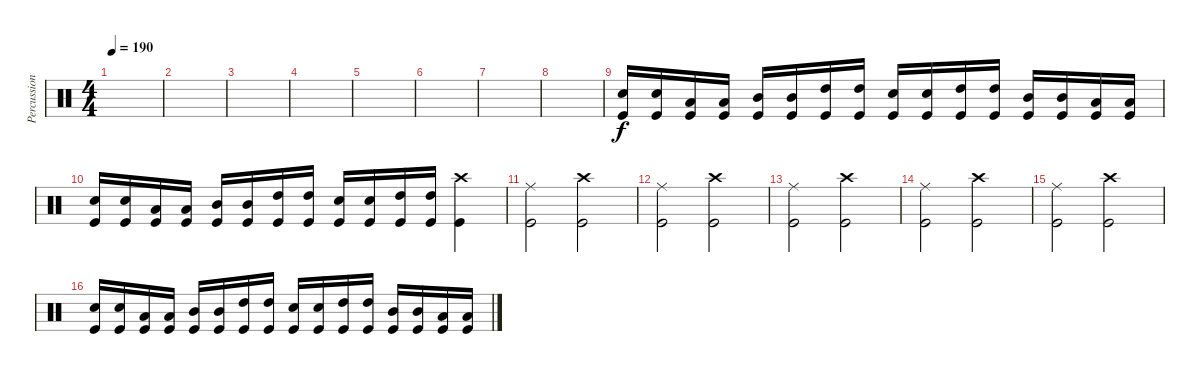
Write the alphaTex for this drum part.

\track ("Percussioni" "Percussion") {instrument percussion}
\staff {score}
\articulation defaults
\ts (4 4)
\tempo 190
\clef neutral
\ks c
|
|
|
|
|
|
|
|
("Electric Snare (hit)" "Kick (hit)").16 ("Electric Snare (hit)" "Kick (hit)").16 ("Low Tom (hit)" "Kick (hit)").16 ("Low Tom (hit)" "Kick (hit)").16 ("Mid Tom (hit)" "Kick (hit)").16 ("Mid Tom (hit)" "Kick (hit)").16 ("High Tom (hit)" "Kick (hit)").16 ("High Tom (hit)" "Kick (hit)").16 ("Electric Snare (hit)" "Kick (hit)").16 ("Electric Snare (hit)" "Kick (hit)").16 ("High Tom (hit)" "Kick (hit)").16 ("High Tom (hit)" "Kick (hit)").16 ("Mid Tom (hit)" "Kick (hit)").16 ("Mid Tom (hit)" "Kick (hit)").16 ("Low Tom (hit)" "Kick (hit)").16 ("Low Tom (hit)" "Kick (hit)").16 |
("Electric Snare (hit)" "Kick (hit)").16 ("Electric Snare (hit)" "Kick (hit)").16 ("Low Tom (hit)" "Kick (hit)").16 ("Low Tom (hit)" "Kick (hit)").16 ("Mid Tom (hit)" "Kick (hit)").16 ("Mid Tom (hit)" "Kick (hit)").16 ("High Tom (hit)" "Kick (hit)").16 ("High Tom (hit)" "Kick (hit)").16 ("Electric Snare (hit)" "Kick (hit)").16 ("Electric Snare (hit)" "Kick (hit)").16 ("High Tom (hit)" "Kick (hit)").16 ("High Tom (hit)" "Kick (hit)").16 ("Crash high (hit)" "Kick (hit)").4 |
("Ride (middle)" "Kick (hit)").2 ("Crash high (hit)" "Kick (hit)").2 |
("Ride (middle)" "Kick (hit)").2 ("Crash high (hit)" "Kick (hit)").2 |
("Ride (middle)" "Kick (hit)").2 ("Crash high (hit)" "Kick (hit)").2 |
("Ride (middle)" "Kick (hit)").2 ("Crash high (hit)" "Kick (hit)").2 |
("Ride (middle)" "Kick (hit)").2 ("Crash high (hit)" "Kick (hit)").2 |
("Electric Snare (hit)" "Kick (hit)").16 ("Electric Snare (hit)" "Kick (hit)").16 ("Low Tom (hit)" "Kick (hit)").16 ("Low Tom (hit)" "Kick (hit)").16 ("Mid Tom (hit)" "Kick (hit)").16 ("Mid Tom (hit)" "Kick (hit)").16 ("High Tom (hit)" "Kick (hit)").16 ("High Tom (hit)" "Kick (hit)").16 ("Electric Snare (hit)" "Kick (hit)").16 ("Electric Snare (hit)" "Kick (hit)").16 ("High Tom (hit)" "Kick (hit)").16 ("High Tom (hit)" "Kick (hit)").16 ("Mid Tom (hit)" "Kick (hit)").16 ("Mid Tom (hit)" "Kick (hit)").16 ("Low Tom (hit)" "Kick (hit)").16 ("Low Tom (hit)" "Kick (hit)").16
